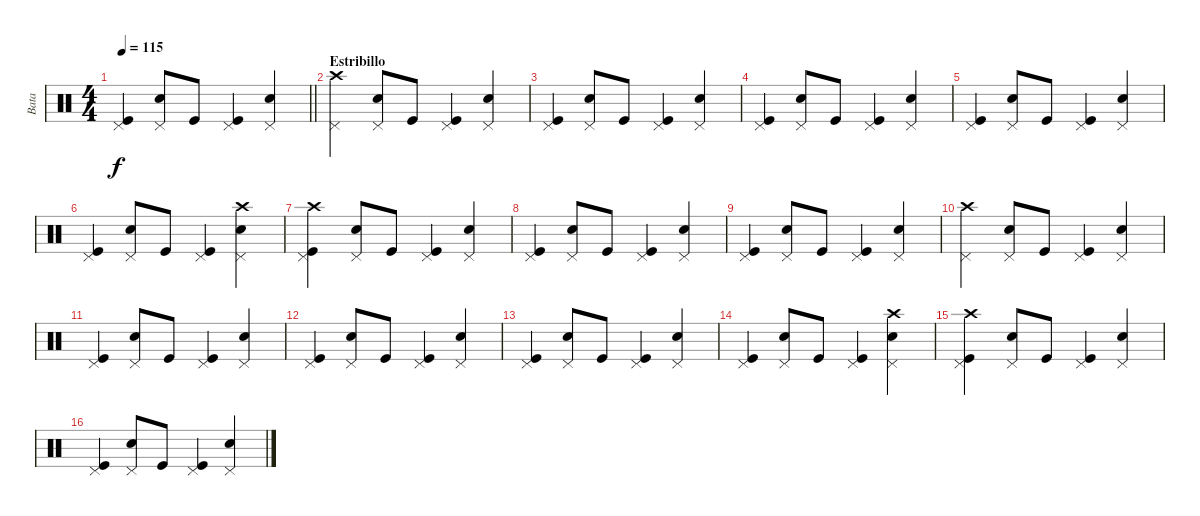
\track ("Bata" "Bata") {instrument percussion}
\staff {score}
\articulation defaults
\ts (4 4)
\tempo 115
\clef neutral
\barLineRight lightlight
\ks c
("Kick (hit)" "Pedal Hi-Hat (hit)").4{dy f} ("Snare (hit) 2" "Pedal Hi-Hat (hit)").8 "Kick (hit)".8 ("Kick (hit)" "Pedal Hi-Hat (hit)").4 ("Snare (hit) 2" "Pedal Hi-Hat (hit)").4 |
\section ("" "Estribillo")
("Crash high (hit)" "Pedal Hi-Hat (hit)").4 ("Snare (hit) 2" "Pedal Hi-Hat (hit)").8 "Kick (hit)".8 ("Kick (hit)" "Pedal Hi-Hat (hit)").4 ("Snare (hit) 2" "Pedal Hi-Hat (hit)").4 |
("Kick (hit)" "Pedal Hi-Hat (hit)").4 ("Snare (hit) 2" "Pedal Hi-Hat (hit)").8 "Kick (hit)".8 ("Kick (hit)" "Pedal Hi-Hat (hit)").4 ("Snare (hit) 2" "Pedal Hi-Hat (hit)").4 |
("Kick (hit)" "Pedal Hi-Hat (hit)").4 ("Snare (hit) 2" "Pedal Hi-Hat (hit)").8 "Kick (hit)".8 ("Kick (hit)" "Pedal Hi-Hat (hit)").4 ("Snare (hit) 2" "Pedal Hi-Hat (hit)").4 |
("Kick (hit)" "Pedal Hi-Hat (hit)").4 ("Snare (hit) 2" "Pedal Hi-Hat (hit)").8 "Kick (hit)".8 ("Kick (hit)" "Pedal Hi-Hat (hit)").4 ("Snare (hit) 2" "Pedal Hi-Hat (hit)").4 |
("Kick (hit)" "Pedal Hi-Hat (hit)").4 ("Snare (hit) 2" "Pedal Hi-Hat (hit)").8 "Kick (hit)".8 ("Kick (hit)" "Pedal Hi-Hat (hit)").4 ("Snare (hit) 2" "Crash high (hit)" "Pedal Hi-Hat (hit)").4 |
("Kick (hit)" "Crash high (hit)" "Pedal Hi-Hat (hit)").4 ("Snare (hit) 2" "Pedal Hi-Hat (hit)").8 "Kick (hit)".8 ("Kick (hit)" "Pedal Hi-Hat (hit)").4 ("Snare (hit) 2" "Pedal Hi-Hat (hit)").4 |
("Kick (hit)" "Pedal Hi-Hat (hit)").4 ("Snare (hit) 2" "Pedal Hi-Hat (hit)").8 "Kick (hit)".8 ("Kick (hit)" "Pedal Hi-Hat (hit)").4 ("Snare (hit) 2" "Pedal Hi-Hat (hit)").4 |
("Kick (hit)" "Pedal Hi-Hat (hit)").4 ("Snare (hit) 2" "Pedal Hi-Hat (hit)").8 "Kick (hit)".8 ("Kick (hit)" "Pedal Hi-Hat (hit)").4 ("Snare (hit) 2" "Pedal Hi-Hat (hit)").4 |
("Crash high (hit)" "Pedal Hi-Hat (hit)").4 ("Snare (hit) 2" "Pedal Hi-Hat (hit)").8 "Kick (hit)".8 ("Kick (hit)" "Pedal Hi-Hat (hit)").4 ("Snare (hit) 2" "Pedal Hi-Hat (hit)").4 |
("Kick (hit)" "Pedal Hi-Hat (hit)").4 ("Snare (hit) 2" "Pedal Hi-Hat (hit)").8 "Kick (hit)".8 ("Kick (hit)" "Pedal Hi-Hat (hit)").4 ("Snare (hit) 2" "Pedal Hi-Hat (hit)").4 |
("Kick (hit)" "Pedal Hi-Hat (hit)").4 ("Snare (hit) 2" "Pedal Hi-Hat (hit)").8 "Kick (hit)".8 ("Kick (hit)" "Pedal Hi-Hat (hit)").4 ("Snare (hit) 2" "Pedal Hi-Hat (hit)").4 |
("Kick (hit)" "Pedal Hi-Hat (hit)").4 ("Snare (hit) 2" "Pedal Hi-Hat (hit)").8 "Kick (hit)".8 ("Kick (hit)" "Pedal Hi-Hat (hit)").4 ("Snare (hit) 2" "Pedal Hi-Hat (hit)").4 |
("Kick (hit)" "Pedal Hi-Hat (hit)").4 ("Snare (hit) 2" "Pedal Hi-Hat (hit)").8 "Kick (hit)".8 ("Kick (hit)" "Pedal Hi-Hat (hit)").4 ("Snare (hit) 2" "Crash high (hit)" "Pedal Hi-Hat (hit)").4 |
("Kick (hit)" "Crash high (hit)" "Pedal Hi-Hat (hit)").4 ("Snare (hit) 2" "Pedal Hi-Hat (hit)").8 "Kick (hit)".8 ("Kick (hit)" "Pedal Hi-Hat (hit)").4 ("Snare (hit) 2" "Pedal Hi-Hat (hit)").4 |
("Kick (hit)" "Pedal Hi-Hat (hit)").4 ("Snare (hit) 2" "Pedal Hi-Hat (hit)").8 "Kick (hit)".8 ("Kick (hit)" "Pedal Hi-Hat (hit)").4 ("Snare (hit) 2" "Pedal Hi-Hat (hit)").4
